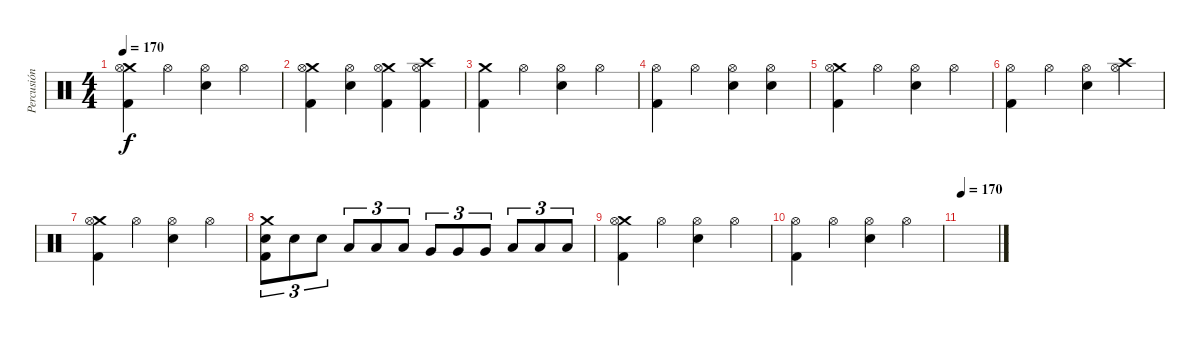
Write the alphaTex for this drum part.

\track ("Percusión" "Percusión") {instrument percussion}
\staff {score}
\articulation defaults
\ts (4 4)
\tempo 170
\clef neutral
\ks c
("Crash medium (hit)" "Hi-Hat (open)" "Kick (hit) 2").4{dy f} "Hi-Hat (open)".4 ("Hi-Hat (open)" "Electric Snare (hit)").4 "Hi-Hat (open)".4 |
("Crash medium (hit)" "Hi-Hat (open)" "Kick (hit) 2").4 ("Hi-Hat (open)" "Electric Snare (hit)").4 ("Crash medium (hit)" "Hi-Hat (open)" "Kick (hit) 2").4 ("Crash high (hit)" "Hi-Hat (open)" "Kick (hit) 2").4 |
("Crash medium (hit)" "Kick (hit) 2").4 "Hi-Hat (open)".4 ("Hi-Hat (open)" "Electric Snare (hit)").4 "Hi-Hat (open)".4 |
("Hi-Hat (open)" "Kick (hit) 2").4 "Hi-Hat (open)".4 ("Hi-Hat (open)" "Electric Snare (hit)").4 ("Hi-Hat (open)" "Electric Snare (hit)").4 |
("Crash medium (hit)" "Hi-Hat (open)" "Kick (hit) 2").4 "Hi-Hat (open)".4 ("Hi-Hat (open)" "Electric Snare (hit)").4 "Hi-Hat (open)".4 |
("Hi-Hat (open)" "Kick (hit) 2").4 "Hi-Hat (open)".4 ("Hi-Hat (open)" "Electric Snare (hit)").4 ("Crash high (hit)" "Hi-Hat (open)").4 |
("Crash medium (hit)" "Hi-Hat (open)" "Kick (hit) 2").4 "Hi-Hat (open)".4 ("Hi-Hat (open)" "Electric Snare (hit)").4 "Hi-Hat (open)".4 |
("Crash medium (hit)" "Electric Snare (hit)" "Kick (hit) 2").8{tu (3 2)} "Electric Snare (hit)".8{tu (3 2)} "Electric Snare (hit)".8{tu (3 2)} "Low Tom (hit)".8{tu (3 2)} "Low Tom (hit)".8{tu (3 2)} "Low Tom (hit)".8{tu (3 2)} "Very Low Tom (hit)".8{tu (3 2)} "Very Low Tom (hit)".8{tu (3 2)} "Very Low Tom (hit)".8{tu (3 2)} "Low Floor Tom (hit)".8{tu (3 2)} "Low Floor Tom (hit)".8{tu (3 2)} "Low Floor Tom (hit)".8{tu (3 2)} |
("Crash medium (hit)" "Hi-Hat (open)" "Kick (hit) 2").4 "Hi-Hat (open)".4 ("Hi-Hat (open)" "Electric Snare (hit)").4 "Hi-Hat (open)".4 |
("Hi-Hat (open)" "Kick (hit) 2").4 "Hi-Hat (open)".4 ("Hi-Hat (open)" "Electric Snare (hit)").4 "Hi-Hat (open)".4 |
\tempo 170
